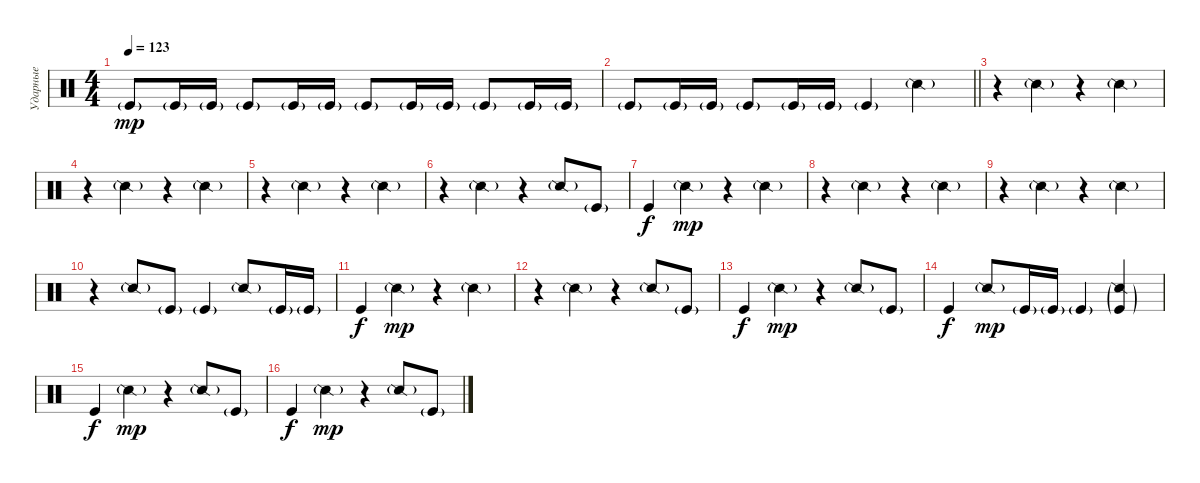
\track ("Ударные" "Ударные") {instrument percussion}
\staff {score}
\articulation defaults
\ts (4 4)
\tempo 123
\clef neutral
\ks c "Kick (hit)"{g}.8{dy mp} "Kick (hit)"{g}.16 "Kick (hit)"{g}.16 "Kick (hit)"{g}.8 "Kick (hit)"{g}.16 "Kick (hit)"{g}.16 "Kick (hit)"{g}.8 "Kick (hit)"{g}.16 "Kick (hit)"{g}.16 "Kick (hit)"{g}.8 "Kick (hit)"{g}.16 "Kick (hit)"{g}.16
|
\barLineRight lightlight "Kick (hit)"{g}.8 "Kick (hit)"{g}.16 "Kick (hit)"{g}.16 "Kick (hit)"{g}.8 "Kick (hit)"{g}.16 "Kick (hit)"{g}.16 "Kick (hit)"{g}.4 "Snare (side stick) 2"{g}.4
|
r.4 "Snare (side stick) 2"{g}.4 r.4 "Snare (side stick) 2"{g}.4 |
r.4 "Snare (side stick) 2"{g}.4 r.4 "Snare (side stick) 2"{g}.4 |
r.4 "Snare (side stick) 2"{g}.4 r.4 "Snare (side stick) 2"{g}.4 |
r.4 "Snare (side stick) 2"{g}.4 r.4 "Snare (side stick) 2"{g}.8 "Kick (hit)"{g}.8 |
"Kick (hit)".4{dy f} "Snare (side stick) 2"{g}.4{dy mp} r.4 "Snare (side stick) 2"{g}.4 |
r.4 "Snare (side stick) 2"{g}.4 r.4 "Snare (side stick) 2"{g}.4 |
r.4 "Snare (side stick) 2"{g}.4 r.4 "Snare (side stick) 2"{g}.4 |
r.4 "Snare (side stick) 2"{g}.8 "Kick (hit)"{g}.8 "Kick (hit)"{g}.4 "Snare (side stick) 2"{g}.8 "Kick (hit)"{g}.16 "Kick (hit)"{g}.16 |
"Kick (hit)".4{dy f} "Snare (side stick) 2"{g}.4{dy mp} r.4 "Snare (side stick) 2"{g}.4 |
r.4 "Snare (side stick) 2"{g}.4 r.4 "Snare (side stick) 2"{g}.8 "Kick (hit)"{g}.8 |
"Kick (hit)".4{dy f} "Snare (side stick) 2"{g}.4{dy mp} r.4 "Snare (side stick) 2"{g}.8 "Kick (hit)"{g}.8 |
"Kick (hit)".4{dy f} "Snare (side stick) 2"{g}.8{dy mp} "Kick (hit)"{g}.16 "Kick (hit)"{g}.16 "Kick (hit)"{g}.4 ("Snare (side stick) 2"{g} "Kick (hit)"{g}).4 |
"Kick (hit)".4{dy f} "Snare (side stick) 2"{g}.4{dy mp} r.4 "Snare (side stick) 2"{g}.8 "Kick (hit)"{g}.8 |
"Kick (hit)".4{dy f} "Snare (side stick) 2"{g}.4{dy mp} r.4 "Snare (side stick) 2"{g}.8 "Kick (hit)"{g}.8
